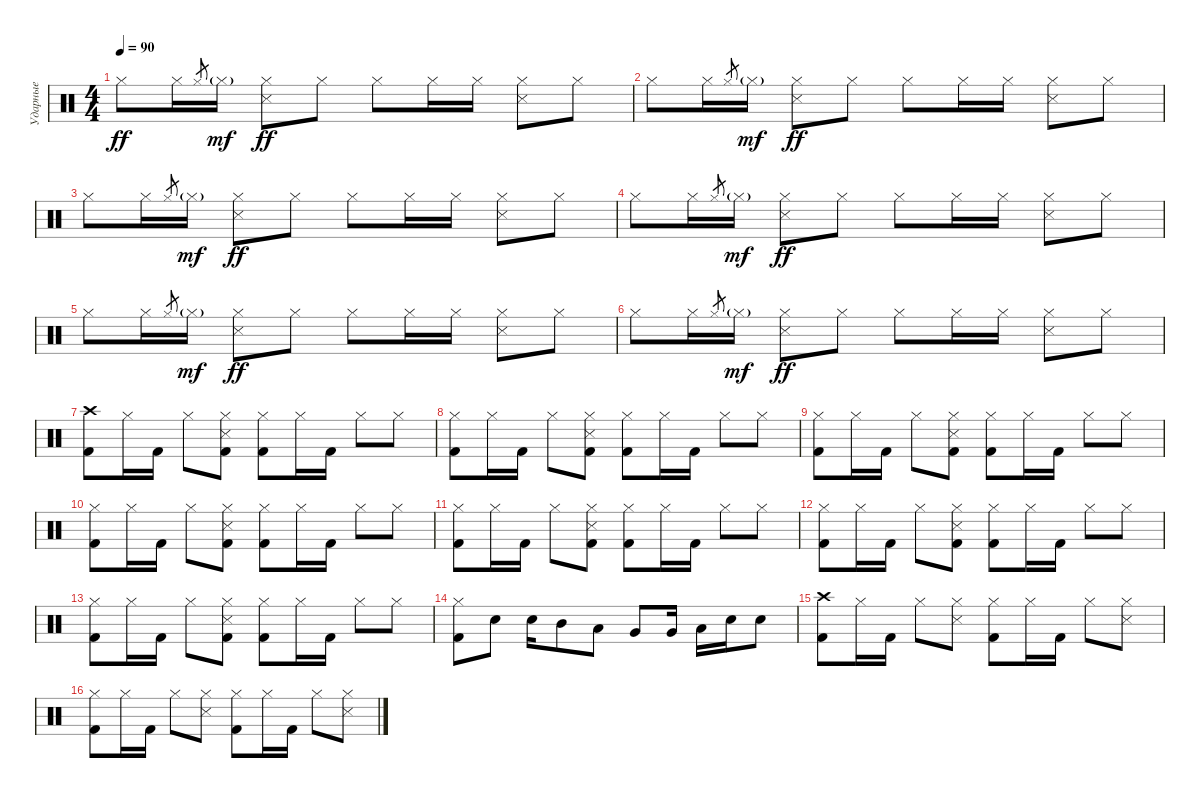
\track ("Ударные" "Ударные") {instrument percussion}
\staff {score}
\articulation defaults
\ts (4 4)
\tempo 90
\clef neutral
\ks c "Hi-Hat (closed)".8{dy ff} "Hi-Hat (closed)".16 "Hi-Hat (closed)".8{gr} "Hi-Hat (closed)"{g}.16{dy mf}
("Hi-Hat (closed)" "Snare (side stick) 3").8{dy ff} "Hi-Hat (closed)".8 "Hi-Hat (closed)".8 "Hi-Hat (closed)".16 "Hi-Hat (closed)".16 ("Hi-Hat (closed)" "Snare (side stick) 3").8 "Hi-Hat (closed)".8 |
"Hi-Hat (closed)".8 "Hi-Hat (closed)".16 "Hi-Hat (closed)".8{gr} "Hi-Hat (closed)"{g}.16{dy mf} ("Hi-Hat (closed)" "Snare (side stick) 3").8{dy ff} "Hi-Hat (closed)".8 "Hi-Hat (closed)".8 "Hi-Hat (closed)".16 "Hi-Hat (closed)".16 ("Hi-Hat (closed)" "Snare (side stick) 3").8 "Hi-Hat (closed)".8 |
"Hi-Hat (closed)".8 "Hi-Hat (closed)".16 "Hi-Hat (closed)".8{gr} "Hi-Hat (closed)"{g}.16{dy mf} ("Hi-Hat (closed)" "Snare (side stick) 3").8{dy ff} "Hi-Hat (closed)".8 "Hi-Hat (closed)".8 "Hi-Hat (closed)".16 "Hi-Hat (closed)".16 ("Hi-Hat (closed)" "Snare (side stick) 3").8 "Hi-Hat (closed)".8 |
"Hi-Hat (closed)".8 "Hi-Hat (closed)".16 "Hi-Hat (closed)".8{gr} "Hi-Hat (closed)"{g}.16{dy mf} ("Hi-Hat (closed)" "Snare (side stick) 3").8{dy ff} "Hi-Hat (closed)".8 "Hi-Hat (closed)".8 "Hi-Hat (closed)".16 "Hi-Hat (closed)".16 ("Hi-Hat (closed)" "Snare (side stick) 3").8 "Hi-Hat (closed)".8 |
"Hi-Hat (closed)".8 "Hi-Hat (closed)".16 "Hi-Hat (closed)".8{gr} "Hi-Hat (closed)"{g}.16{dy mf} ("Hi-Hat (closed)" "Snare (side stick) 3").8{dy ff} "Hi-Hat (closed)".8 "Hi-Hat (closed)".8 "Hi-Hat (closed)".16 "Hi-Hat (closed)".16 ("Hi-Hat (closed)" "Snare (side stick) 3").8 "Hi-Hat (closed)".8 |
"Hi-Hat (closed)".8 "Hi-Hat (closed)".16 "Hi-Hat (closed)".8{gr} "Hi-Hat (closed)"{g}.16{dy mf} ("Hi-Hat (closed)" "Snare (side stick) 3").8{dy ff} "Hi-Hat (closed)".8 "Hi-Hat (closed)".8 "Hi-Hat (closed)".16 "Hi-Hat (closed)".16 ("Hi-Hat (closed)" "Snare (side stick) 3").8 "Hi-Hat (closed)".8 |
("Crash high (hit)" "Kick (hit) 2").8 "Hi-Hat (closed)".16 "Kick (hit) 2".16 "Hi-Hat (closed)".8 ("Hi-Hat (closed)" "Kick (hit) 2" "Snare (side stick) 3").8 ("Hi-Hat (closed)" "Kick (hit) 2").8 "Hi-Hat (closed)".16 "Kick (hit) 2".16 "Hi-Hat (closed)".8 "Hi-Hat (closed)".8 |
("Hi-Hat (closed)" "Kick (hit) 2").8 "Hi-Hat (closed)".16 "Kick (hit) 2".16 "Hi-Hat (closed)".8 ("Hi-Hat (closed)" "Kick (hit) 2" "Snare (side stick) 3").8 ("Hi-Hat (closed)" "Kick (hit) 2").8 "Hi-Hat (closed)".16 "Kick (hit) 2".16 "Hi-Hat (closed)".8 "Hi-Hat (closed)".8 |
("Hi-Hat (closed)" "Kick (hit) 2").8 "Hi-Hat (closed)".16 "Kick (hit) 2".16 "Hi-Hat (closed)".8 ("Hi-Hat (closed)" "Kick (hit) 2" "Snare (side stick) 3").8 ("Hi-Hat (closed)" "Kick (hit) 2").8 "Hi-Hat (closed)".16 "Kick (hit) 2".16 "Hi-Hat (closed)".8 "Hi-Hat (closed)".8 |
("Hi-Hat (closed)" "Kick (hit) 2").8 "Hi-Hat (closed)".16 "Kick (hit) 2".16 "Hi-Hat (closed)".8 ("Hi-Hat (closed)" "Kick (hit) 2" "Snare (side stick) 3").8 ("Hi-Hat (closed)" "Kick (hit) 2").8 "Hi-Hat (closed)".16 "Kick (hit) 2".16 "Hi-Hat (closed)".8 "Hi-Hat (closed)".8 |
("Hi-Hat (closed)" "Kick (hit) 2").8 "Hi-Hat (closed)".16 "Kick (hit) 2".16 "Hi-Hat (closed)".8 ("Hi-Hat (closed)" "Kick (hit) 2" "Snare (side stick) 3").8 ("Hi-Hat (closed)" "Kick (hit) 2").8 "Hi-Hat (closed)".16 "Kick (hit) 2".16 "Hi-Hat (closed)".8 "Hi-Hat (closed)".8 |
("Hi-Hat (closed)" "Kick (hit) 2").8 "Hi-Hat (closed)".16 "Kick (hit) 2".16 "Hi-Hat (closed)".8 ("Hi-Hat (closed)" "Kick (hit) 2" "Snare (side stick) 3").8 ("Hi-Hat (closed)" "Kick (hit) 2").8 "Hi-Hat (closed)".16 "Kick (hit) 2".16 "Hi-Hat (closed)".8 "Hi-Hat (closed)".8 |
("Hi-Hat (closed)" "Kick (hit) 2").8 "Hi-Hat (closed)".16 "Kick (hit) 2".16 "Hi-Hat (closed)".8 ("Hi-Hat (closed)" "Kick (hit) 2" "Snare (side stick) 3").8 ("Hi-Hat (closed)" "Kick (hit) 2").8 "Hi-Hat (closed)".16 "Kick (hit) 2".16 "Hi-Hat (closed)".8 "Hi-Hat (closed)".8 |
("Hi-Hat (closed)" "Kick (hit) 2").8 "Electric Snare (hit)".8 "Electric Snare (hit)".16 "Mid Tom (hit)".8 "Low Tom (hit)".8 "Very Low Tom (hit)".8 "Very Low Tom (hit)".16 "Low Tom (hit)".16 "Electric Snare (hit)".16 "Electric Snare (hit)".8 |
("Crash high (hit)" "Kick (hit) 2").8 "Hi-Hat (closed)".16 "Kick (hit) 2".16 "Hi-Hat (closed)".8 ("Hi-Hat (closed)" "Snare (side stick) 3").8 ("Hi-Hat (closed)" "Kick (hit) 2").8 "Hi-Hat (closed)".16 "Kick (hit) 2".16 "Hi-Hat (closed)".8 ("Hi-Hat (closed)" "Snare (side stick) 3").8 |
("Hi-Hat (closed)" "Kick (hit) 2").8 "Hi-Hat (closed)".16 "Kick (hit) 2".16 "Hi-Hat (closed)".8 ("Hi-Hat (closed)" "Snare (side stick) 3").8 ("Hi-Hat (closed)" "Kick (hit) 2").8 "Hi-Hat (closed)".16 "Kick (hit) 2".16 "Hi-Hat (closed)".8 ("Hi-Hat (closed)" "Snare (side stick) 3").8
